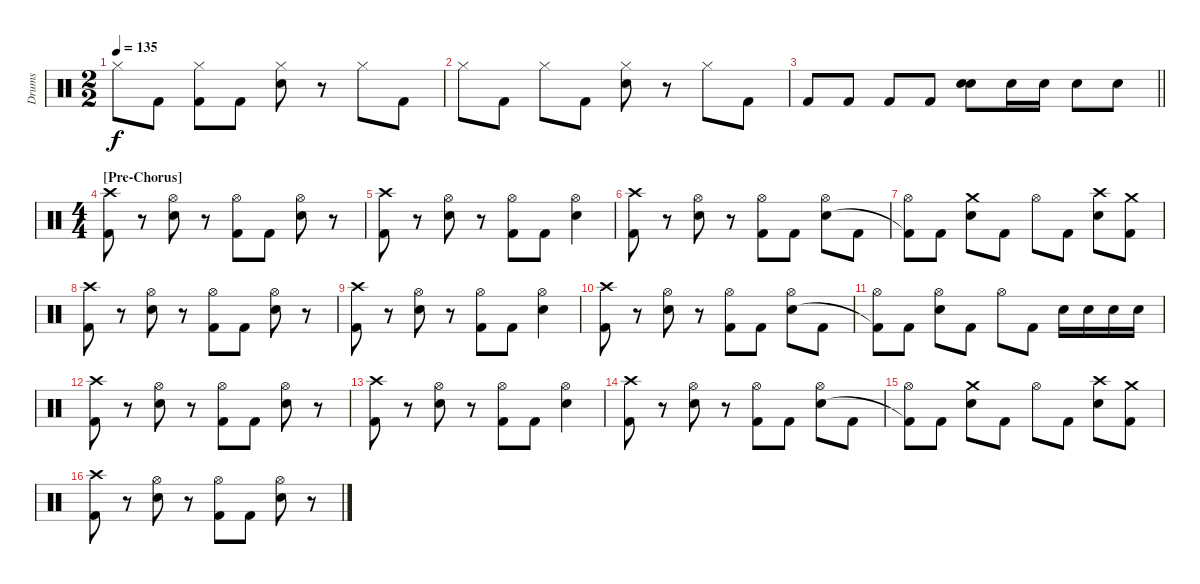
\track ("Drums" "Drums") {instrument percussion}
\staff {score}
\articulation defaults
\ts (2 2)
\tempo 135
\clef neutral
\ks c "Hi-Hat (closed)".8{dy f} "Kick (hit) 2".8
("Hi-Hat (closed)" "Kick (hit) 2").8 "Kick (hit) 2".8 ("Hi-Hat (closed)" "Snare (hit) 2").8 r.8 "Hi-Hat (closed)".8 "Kick (hit) 2".8 |
"Hi-Hat (closed)".8 "Kick (hit) 2".8 "Hi-Hat (closed)".8 "Kick (hit) 2".8 ("Hi-Hat (closed)" "Snare (hit) 2").8 r.8 "Hi-Hat (closed)".8 "Kick (hit) 2".8 |
\barLineRight lightlight "Kick (hit) 2".8 "Kick (hit) 2".8 "Kick (hit) 2".8 "Kick (hit) 2".8
("Snare (hit) 2" "Snare (hit) 2").8{bd 480} "Snare (hit) 2".16 "Snare (hit) 2".16 "Snare (hit) 2".8 "Snare (hit) 2".8 |
\ts (4 4)
\section ("" "[Pre-Chorus]")
("Crash high (hit)" "Kick (hit) 2").8 r.8 ("Hi-Hat (open)" "Snare (hit) 2").8 r.8 ("Hi-Hat (open)" "Kick (hit) 2").8 "Kick (hit) 2".8 ("Hi-Hat (open)" "Snare (hit) 2").8 r.8 |
("Crash high (hit)" "Kick (hit) 2").8 r.8 ("Hi-Hat (open)" "Snare (hit) 2").8 r.8 ("Hi-Hat (open)" "Kick (hit) 2").8 "Kick (hit) 2".8 ("Hi-Hat (open)" "Snare (hit) 2").4 |
("Crash high (hit)" "Kick (hit) 2").8 r.8 ("Hi-Hat (open)" "Snare (hit) 2").8 r.8 ("Hi-Hat (open)" "Kick (hit) 2").8 "Kick (hit) 2".8 ("Hi-Hat (open)" "Snare (hit) 2").8 "Kick (hit) 2".8 |
("Hi-Hat (open)" "Kick (hit) 2"{t}).8 "Kick (hit) 2".8 ("Crash medium (hit)" "Snare (hit) 2").8 "Kick (hit) 2".8 "Hi-Hat (open)".8 "Kick (hit) 2".8 ("Crash high (hit)" "Snare (hit) 2").8 ("Crash medium (hit)" "Kick (hit) 2").8 |
("Crash high (hit)" "Kick (hit) 2").8 r.8 ("Hi-Hat (open)" "Snare (hit) 2").8 r.8 ("Hi-Hat (open)" "Kick (hit) 2").8 "Kick (hit) 2".8 ("Hi-Hat (open)" "Snare (hit) 2").8 r.8 |
("Crash high (hit)" "Kick (hit) 2").8 r.8 ("Hi-Hat (open)" "Snare (hit) 2").8 r.8 ("Hi-Hat (open)" "Kick (hit) 2").8 "Kick (hit) 2".8 ("Hi-Hat (open)" "Snare (hit) 2").4 |
("Crash high (hit)" "Kick (hit) 2").8 r.8 ("Hi-Hat (open)" "Snare (hit) 2").8 r.8 ("Hi-Hat (open)" "Kick (hit) 2").8 "Kick (hit) 2".8 ("Hi-Hat (open)" "Snare (hit) 2").8 "Kick (hit) 2".8 |
("Hi-Hat (open)" "Kick (hit) 2"{t}).8 "Kick (hit) 2".8 ("Hi-Hat (open)" "Snare (hit) 2").8 "Kick (hit) 2".8 "Hi-Hat (open)".8 "Kick (hit) 2".8 "Snare (hit) 2".16 "Snare (hit) 2".16 "Snare (hit) 2".16 "Snare (hit) 2".16 |
("Crash high (hit)" "Kick (hit) 2").8 r.8 ("Hi-Hat (open)" "Snare (hit) 2").8 r.8 ("Hi-Hat (open)" "Kick (hit) 2").8 "Kick (hit) 2".8 ("Hi-Hat (open)" "Snare (hit) 2").8 r.8 |
("Crash high (hit)" "Kick (hit) 2").8 r.8 ("Hi-Hat (open)" "Snare (hit) 2").8 r.8 ("Hi-Hat (open)" "Kick (hit) 2").8 "Kick (hit) 2".8 ("Hi-Hat (open)" "Snare (hit) 2").4 |
("Crash high (hit)" "Kick (hit) 2").8 r.8 ("Hi-Hat (open)" "Snare (hit) 2").8 r.8 ("Hi-Hat (open)" "Kick (hit) 2").8 "Kick (hit) 2".8 ("Hi-Hat (open)" "Snare (hit) 2").8 "Kick (hit) 2".8 |
("Hi-Hat (open)" "Kick (hit) 2"{t}).8 "Kick (hit) 2".8 ("Crash medium (hit)" "Snare (hit) 2").8 "Kick (hit) 2".8 "Hi-Hat (open)".8 "Kick (hit) 2".8 ("Crash high (hit)" "Snare (hit) 2").8 ("Crash medium (hit)" "Kick (hit) 2").8 |
("Crash high (hit)" "Kick (hit) 2").8 r.8 ("Hi-Hat (open)" "Snare (hit) 2").8 r.8 ("Hi-Hat (open)" "Kick (hit) 2").8 "Kick (hit) 2".8 ("Hi-Hat (open)" "Snare (hit) 2").8 r.8
